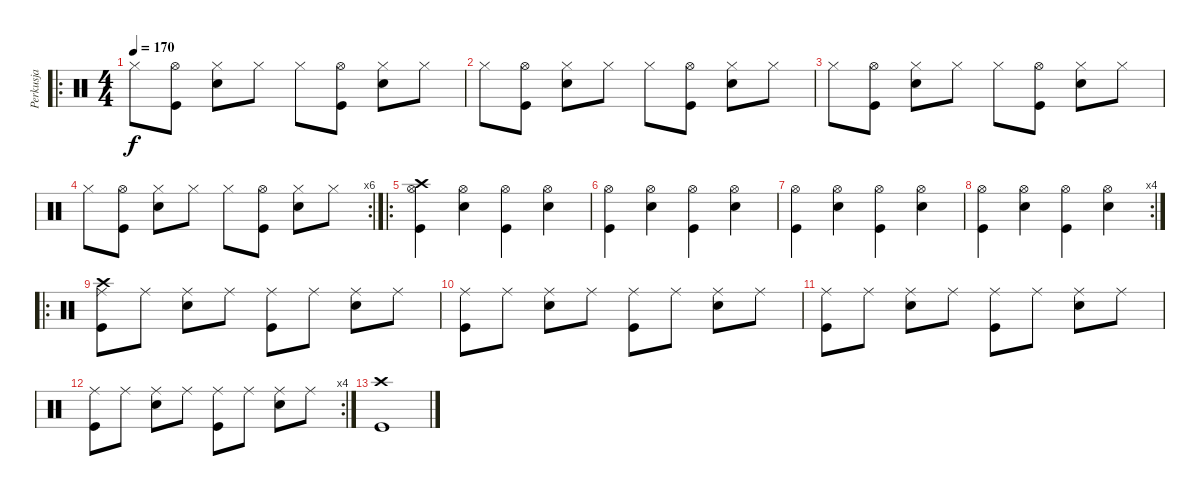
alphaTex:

\track ("Perkusja" "Perkusja") {instrument percussion}
\staff {score}
\articulation defaults
\ro
\ts (4 4)
\tempo 170
\clef neutral
\ks c "Hi-Hat (closed)".8{dy f}
("Hi-Hat (open)" "Kick (hit)").8 ("Hi-Hat (closed)" "Electric Snare (hit)").8 "Hi-Hat (closed)".8 "Hi-Hat (closed)".8 ("Hi-Hat (open)" "Kick (hit)").8 ("Hi-Hat (closed)" "Electric Snare (hit)").8 "Hi-Hat (closed)".8 |
"Hi-Hat (closed)".8 ("Hi-Hat (open)" "Kick (hit)").8 ("Hi-Hat (closed)" "Electric Snare (hit)").8 "Hi-Hat (closed)".8 "Hi-Hat (closed)".8 ("Hi-Hat (open)" "Kick (hit)").8 ("Hi-Hat (closed)" "Electric Snare (hit)").8 "Hi-Hat (closed)".8 |
"Hi-Hat (closed)".8 ("Hi-Hat (open)" "Kick (hit)").8 ("Hi-Hat (closed)" "Electric Snare (hit)").8 "Hi-Hat (closed)".8 "Hi-Hat (closed)".8 ("Hi-Hat (open)" "Kick (hit)").8 ("Hi-Hat (closed)" "Electric Snare (hit)").8 "Hi-Hat (closed)".8 |
\rc 6 "Hi-Hat (closed)".8
("Hi-Hat (open)" "Kick (hit)").8 ("Hi-Hat (closed)" "Electric Snare (hit)").8 "Hi-Hat (closed)".8 "Hi-Hat (closed)".8 ("Hi-Hat (open)" "Kick (hit)").8 ("Hi-Hat (closed)" "Electric Snare (hit)").8 "Hi-Hat (closed)".8 |
\ro
("Hi-Hat (open)" "Crash high (hit)" "Kick (hit)").4 ("Hi-Hat (open)" "Electric Snare (hit)").4 ("Hi-Hat (open)" "Kick (hit)").4 ("Hi-Hat (open)" "Electric Snare (hit)").4 |
("Hi-Hat (open)" "Kick (hit)").4 ("Hi-Hat (open)" "Electric Snare (hit)").4 ("Hi-Hat (open)" "Kick (hit)").4 ("Hi-Hat (open)" "Electric Snare (hit)").4 |
("Hi-Hat (open)" "Kick (hit)").4 ("Hi-Hat (open)" "Electric Snare (hit)").4 ("Hi-Hat (open)" "Kick (hit)").4 ("Hi-Hat (open)" "Electric Snare (hit)").4 |
\rc 4
("Hi-Hat (open)" "Kick (hit)").4 ("Hi-Hat (open)" "Electric Snare (hit)").4 ("Hi-Hat (open)" "Kick (hit)").4 ("Hi-Hat (open)" "Electric Snare (hit)").4 |
\ro
("Ride (middle)" "Crash high (hit)" "Kick (hit)").8 "Ride (middle)".8 ("Ride (middle)" "Electric Snare (hit)").8 "Ride (middle)".8 ("Ride (middle)" "Kick (hit)").8 "Ride (middle)".8 ("Ride (middle)" "Electric Snare (hit)").8 "Ride (middle)".8 |
("Ride (middle)" "Kick (hit)").8 "Ride (middle)".8 ("Ride (middle)" "Electric Snare (hit)").8 "Ride (middle)".8 ("Ride (middle)" "Kick (hit)").8 "Ride (middle)".8 ("Ride (middle)" "Electric Snare (hit)").8 "Ride (middle)".8 |
("Ride (middle)" "Kick (hit)").8 "Ride (middle)".8 ("Ride (middle)" "Electric Snare (hit)").8 "Ride (middle)".8 ("Ride (middle)" "Kick (hit)").8 "Ride (middle)".8 ("Ride (middle)" "Electric Snare (hit)").8 "Ride (middle)".8 |
\rc 4
("Ride (middle)" "Kick (hit)").8 "Ride (middle)".8 ("Ride (middle)" "Electric Snare (hit)").8 "Ride (middle)".8 ("Ride (middle)" "Kick (hit)").8 "Ride (middle)".8 ("Ride (middle)" "Electric Snare (hit)").8 "Ride (middle)".8 |
("Crash high (hit)" "Kick (hit)").1
